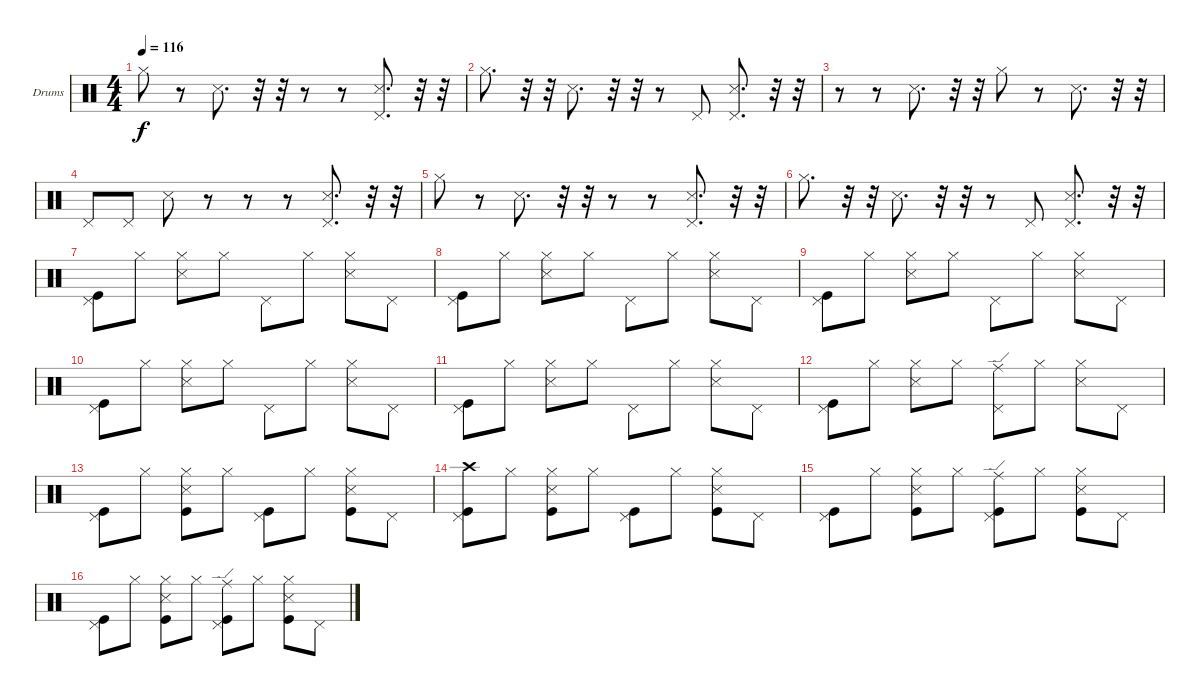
\bracketExtendMode groupsimilarinstruments
\firstSystemTrackNameOrientation horizontal
\otherSystemsTrackNameOrientation horizontal
\track ("Drumkit" "Drums") {instrument percussion}
\staff {score}
\articulation defaults
\ts (4 4)
\tempo 116
\clef neutral
\ks c "Hi-Hat (closed)".8{dy f}
r.8 "Snare (side stick) 3".8{d} r.32 r.32 r.8 r.8 ("Snare (side stick) 3" "Pedal Hi-Hat (hit)").8{d} r.32 r.32 |
"Hi-Hat (closed)".8{d} r.32 r.32 "Snare (side stick) 3".8{d} r.32 r.32 r.8 "Pedal Hi-Hat (hit)".8 ("Snare (side stick) 3" "Pedal Hi-Hat (hit)").8{d} r.32 r.32 |
r.8 r.8 "Snare (side stick) 3".8{d} r.32 r.32 "Hi-Hat (closed)".8 r.8 "Snare (side stick) 3".8{d} r.32 r.32 |
"Pedal Hi-Hat (hit)".8 "Pedal Hi-Hat (hit)".8 "Snare (side stick) 3".8 r.8 r.8 r.8 ("Snare (side stick) 3" "Pedal Hi-Hat (hit)").8{d} r.32 r.32 |
"Hi-Hat (closed)".8 r.8 "Snare (side stick) 3".8{d} r.32 r.32 r.8 r.8 ("Snare (side stick) 3" "Pedal Hi-Hat (hit)").8{d} r.32 r.32 |
"Hi-Hat (closed)".8{d} r.32 r.32 "Snare (side stick) 3".8{d} r.32 r.32 r.8 "Pedal Hi-Hat (hit)".8 ("Snare (side stick) 3" "Pedal Hi-Hat (hit)").8{d} r.32 r.32 |
("Kick (hit)" "Pedal Hi-Hat (hit)").8 "Hi-Hat (closed)".8 ("Snare (side stick) 3" "Hi-Hat (closed)").8 "Hi-Hat (closed)".8 "Pedal Hi-Hat (hit)".8 "Hi-Hat (closed)".8 ("Snare (side stick) 3" "Hi-Hat (closed)").8 "Pedal Hi-Hat (hit)".8 |
("Kick (hit)" "Pedal Hi-Hat (hit)").8 "Hi-Hat (closed)".8 ("Snare (side stick) 3" "Hi-Hat (closed)").8 "Hi-Hat (closed)".8 "Pedal Hi-Hat (hit)".8 "Hi-Hat (closed)".8 ("Snare (side stick) 3" "Hi-Hat (closed)").8 "Pedal Hi-Hat (hit)".8 |
("Kick (hit)" "Pedal Hi-Hat (hit)").8 "Hi-Hat (closed)".8 ("Snare (side stick) 3" "Hi-Hat (closed)").8 "Hi-Hat (closed)".8 "Pedal Hi-Hat (hit)".8 "Hi-Hat (closed)".8 ("Snare (side stick) 3" "Hi-Hat (closed)").8 "Pedal Hi-Hat (hit)".8 |
("Kick (hit)" "Pedal Hi-Hat (hit)").8 "Hi-Hat (closed)".8 ("Snare (side stick) 3" "Hi-Hat (closed)").8 "Hi-Hat (closed)".8 "Pedal Hi-Hat (hit)".8 "Hi-Hat (closed)".8 ("Snare (side stick) 3" "Hi-Hat (closed)").8 "Pedal Hi-Hat (hit)".8 |
("Kick (hit)" "Pedal Hi-Hat (hit)").8 "Hi-Hat (closed)".8 ("Snare (side stick) 3" "Hi-Hat (closed)").8 "Hi-Hat (closed)".8 "Pedal Hi-Hat (hit)".8 "Hi-Hat (closed)".8 ("Snare (side stick) 3" "Hi-Hat (closed)").8 "Pedal Hi-Hat (hit)".8 |
("Kick (hit)" "Pedal Hi-Hat (hit)").8 "Hi-Hat (closed)".8 ("Snare (side stick) 3" "Hi-Hat (closed)").8 "Hi-Hat (closed)".8 ("Pedal Hi-Hat (hit)" "Ride (edge)").8 "Hi-Hat (closed)".8 ("Snare (side stick) 3" "Hi-Hat (closed)").8 "Pedal Hi-Hat (hit)".8 |
("Kick (hit)" "Pedal Hi-Hat (hit)").8 "Hi-Hat (closed)".8 ("Snare (side stick) 3" "Kick (hit)" "Hi-Hat (closed)").8 "Hi-Hat (closed)".8 ("Kick (hit)" "Pedal Hi-Hat (hit)").8 "Hi-Hat (closed)".8 ("Kick (hit)" "Snare (side stick) 3" "Hi-Hat (closed)").8 "Pedal Hi-Hat (hit)".8 |
("Kick (hit)" "Pedal Hi-Hat (hit)" "Crash high (hit)").8 "Hi-Hat (closed)".8 ("Snare (side stick) 3" "Kick (hit)" "Hi-Hat (closed)").8 "Hi-Hat (closed)".8 ("Kick (hit)" "Pedal Hi-Hat (hit)").8 "Hi-Hat (closed)".8 ("Kick (hit)" "Snare (side stick) 3" "Hi-Hat (closed)").8 "Pedal Hi-Hat (hit)".8 |
("Kick (hit)" "Pedal Hi-Hat (hit)").8 "Hi-Hat (closed)".8 ("Snare (side stick) 3" "Kick (hit)" "Hi-Hat (closed)").8 "Hi-Hat (closed)".8 ("Kick (hit)" "Pedal Hi-Hat (hit)" "Ride (edge)").8 "Hi-Hat (closed)".8 ("Kick (hit)" "Snare (side stick) 3" "Hi-Hat (closed)").8 "Pedal Hi-Hat (hit)".8 |
("Kick (hit)" "Pedal Hi-Hat (hit)").8 "Hi-Hat (closed)".8 ("Snare (side stick) 3" "Kick (hit)" "Hi-Hat (closed)").8 "Hi-Hat (closed)".8 ("Kick (hit)" "Pedal Hi-Hat (hit)" "Ride (edge)").8 "Hi-Hat (closed)".8 ("Kick (hit)" "Snare (side stick) 3" "Hi-Hat (closed)").8 "Pedal Hi-Hat (hit)".8
